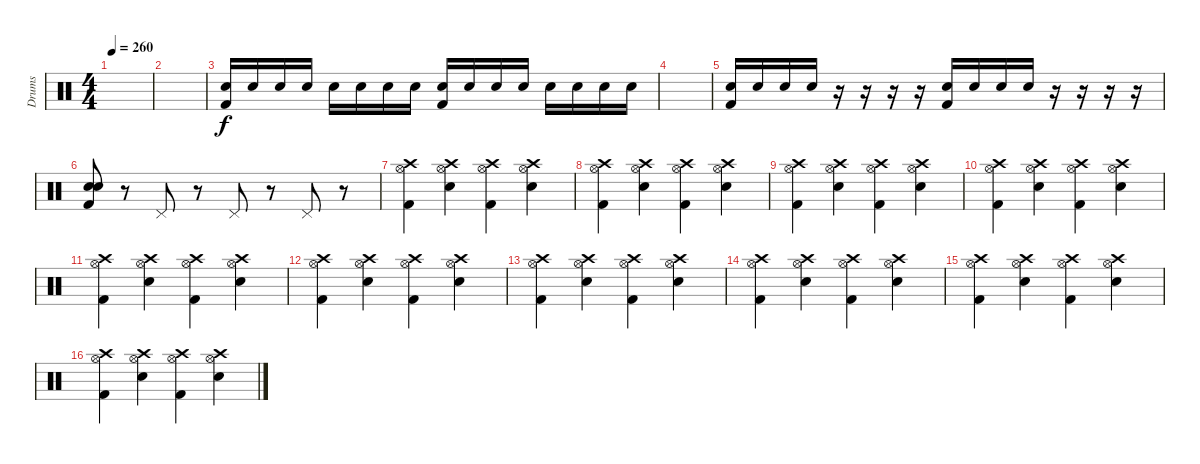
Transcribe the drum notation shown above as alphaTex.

\track ("Drums" "Drums") {instrument percussion}
\staff {score}
\articulation defaults
\ts (4 4)
\tempo 260
\clef neutral
\ks c
|
|
("Electric Snare (hit)" "Kick (hit) 2").16 "Electric Snare (hit)".16 "Electric Snare (hit)".16 "Electric Snare (hit)".16 "Electric Snare (hit)".16 "Electric Snare (hit)".16 "Electric Snare (hit)".16 "Electric Snare (hit)".16 ("Electric Snare (hit)" "Kick (hit) 2").16 "Electric Snare (hit)".16 "Electric Snare (hit)".16 "Electric Snare (hit)".16 "Electric Snare (hit)".16 "Electric Snare (hit)".16 "Electric Snare (hit)".16 "Electric Snare (hit)".16 |
|
("Electric Snare (hit)" "Kick (hit) 2").16 "Electric Snare (hit)".16 "Electric Snare (hit)".16 "Electric Snare (hit)".16 r.16 r.16 r.16 r.16 ("Electric Snare (hit)" "Kick (hit) 2").16 "Electric Snare (hit)".16 "Electric Snare (hit)".16 "Electric Snare (hit)".16 r.16 r.16 r.16 r.16 |
("Electric Snare (hit)" "Kick (hit) 2" "Electric Snare (hit)").8 r.8 "Pedal Hi-Hat (hit)".8 r.8 "Pedal Hi-Hat (hit)".8 r.8 "Pedal Hi-Hat (hit)".8 r.8 |
("Crash high (hit)" "Kick (hit) 2" "Hi-Hat (open)").4 ("Crash high (hit)" "Electric Snare (hit)" "Hi-Hat (open)").4 ("Crash high (hit)" "Kick (hit) 2" "Hi-Hat (open)").4 ("Crash high (hit)" "Electric Snare (hit)" "Hi-Hat (open)").4 |
("Crash high (hit)" "Kick (hit) 2" "Hi-Hat (open)").4 ("Crash high (hit)" "Electric Snare (hit)" "Hi-Hat (open)").4 ("Crash high (hit)" "Kick (hit) 2" "Hi-Hat (open)").4 ("Crash high (hit)" "Electric Snare (hit)" "Hi-Hat (open)").4 |
("Crash high (hit)" "Kick (hit) 2" "Hi-Hat (open)").4 ("Crash high (hit)" "Electric Snare (hit)" "Hi-Hat (open)").4 ("Crash high (hit)" "Kick (hit) 2" "Hi-Hat (open)").4 ("Crash high (hit)" "Electric Snare (hit)" "Hi-Hat (open)").4 |
("Crash high (hit)" "Kick (hit) 2" "Hi-Hat (open)").4 ("Crash high (hit)" "Electric Snare (hit)" "Hi-Hat (open)").4 ("Crash high (hit)" "Kick (hit) 2" "Hi-Hat (open)").4 ("Crash high (hit)" "Electric Snare (hit)" "Hi-Hat (open)").4 |
("Crash high (hit)" "Kick (hit) 2" "Hi-Hat (open)").4 ("Crash high (hit)" "Electric Snare (hit)" "Hi-Hat (open)").4 ("Crash high (hit)" "Kick (hit) 2" "Hi-Hat (open)").4 ("Crash high (hit)" "Electric Snare (hit)" "Hi-Hat (open)").4 |
("Crash high (hit)" "Kick (hit) 2" "Hi-Hat (open)").4 ("Crash high (hit)" "Electric Snare (hit)" "Hi-Hat (open)").4 ("Crash high (hit)" "Kick (hit) 2" "Hi-Hat (open)").4 ("Crash high (hit)" "Electric Snare (hit)" "Hi-Hat (open)").4 |
("Crash high (hit)" "Kick (hit) 2" "Hi-Hat (open)").4 ("Crash high (hit)" "Electric Snare (hit)" "Hi-Hat (open)").4 ("Crash high (hit)" "Kick (hit) 2" "Hi-Hat (open)").4 ("Crash high (hit)" "Electric Snare (hit)" "Hi-Hat (open)").4 |
("Crash high (hit)" "Kick (hit) 2" "Hi-Hat (open)").4 ("Crash high (hit)" "Electric Snare (hit)" "Hi-Hat (open)").4 ("Crash high (hit)" "Kick (hit) 2" "Hi-Hat (open)").4 ("Crash high (hit)" "Electric Snare (hit)" "Hi-Hat (open)").4 |
("Crash high (hit)" "Kick (hit) 2" "Hi-Hat (open)").4 ("Crash high (hit)" "Electric Snare (hit)" "Hi-Hat (open)").4 ("Crash high (hit)" "Kick (hit) 2" "Hi-Hat (open)").4 ("Crash high (hit)" "Electric Snare (hit)" "Hi-Hat (open)").4 |
("Crash high (hit)" "Kick (hit) 2" "Hi-Hat (open)").4 ("Crash high (hit)" "Electric Snare (hit)" "Hi-Hat (open)").4 ("Crash high (hit)" "Kick (hit) 2" "Hi-Hat (open)").4 ("Crash high (hit)" "Electric Snare (hit)" "Hi-Hat (open)").4
